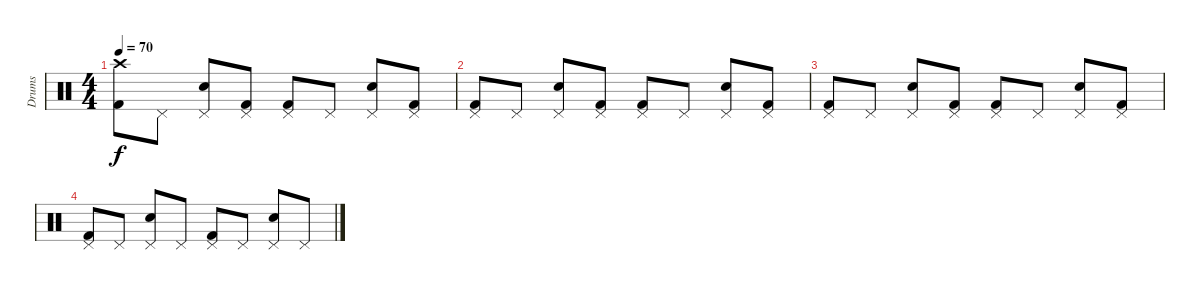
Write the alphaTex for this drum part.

\track ("Drums" "Drums") {instrument percussion}
\staff {score}
\articulation defaults
\ts (4 4)
\tempo 70
\clef neutral
\ks c
("Crash high (hit)" "Kick (hit) 2").8{dy f} "Pedal Hi-Hat (hit)".8 ("Pedal Hi-Hat (hit)" "Snare (hit) 2").8 ("Pedal Hi-Hat (hit)" "Kick (hit) 2").8 ("Pedal Hi-Hat (hit)" "Kick (hit) 2").8 "Pedal Hi-Hat (hit)".8 ("Pedal Hi-Hat (hit)" "Snare (hit) 2").8 ("Pedal Hi-Hat (hit)" "Kick (hit) 2").8 |
("Pedal Hi-Hat (hit)" "Kick (hit) 2").8 "Pedal Hi-Hat (hit)".8 ("Pedal Hi-Hat (hit)" "Snare (hit) 2").8 ("Pedal Hi-Hat (hit)" "Kick (hit) 2").8 ("Pedal Hi-Hat (hit)" "Kick (hit) 2").8 "Pedal Hi-Hat (hit)".8 ("Pedal Hi-Hat (hit)" "Snare (hit) 2").8 ("Pedal Hi-Hat (hit)" "Kick (hit) 2").8 |
("Pedal Hi-Hat (hit)" "Kick (hit) 2").8 "Pedal Hi-Hat (hit)".8 ("Pedal Hi-Hat (hit)" "Snare (hit) 2").8 ("Pedal Hi-Hat (hit)" "Kick (hit) 2").8 ("Pedal Hi-Hat (hit)" "Kick (hit) 2").8 "Pedal Hi-Hat (hit)".8 ("Pedal Hi-Hat (hit)" "Snare (hit) 2").8 ("Pedal Hi-Hat (hit)" "Kick (hit) 2").8 |
("Pedal Hi-Hat (hit)" "Kick (hit) 2").8 "Pedal Hi-Hat (hit)".8 ("Pedal Hi-Hat (hit)" "Snare (hit) 2").8 "Pedal Hi-Hat (hit)".8 ("Pedal Hi-Hat (hit)" "Kick (hit) 2").8 "Pedal Hi-Hat (hit)".8 ("Pedal Hi-Hat (hit)" "Snare (hit) 2").8 "Pedal Hi-Hat (hit)".8
